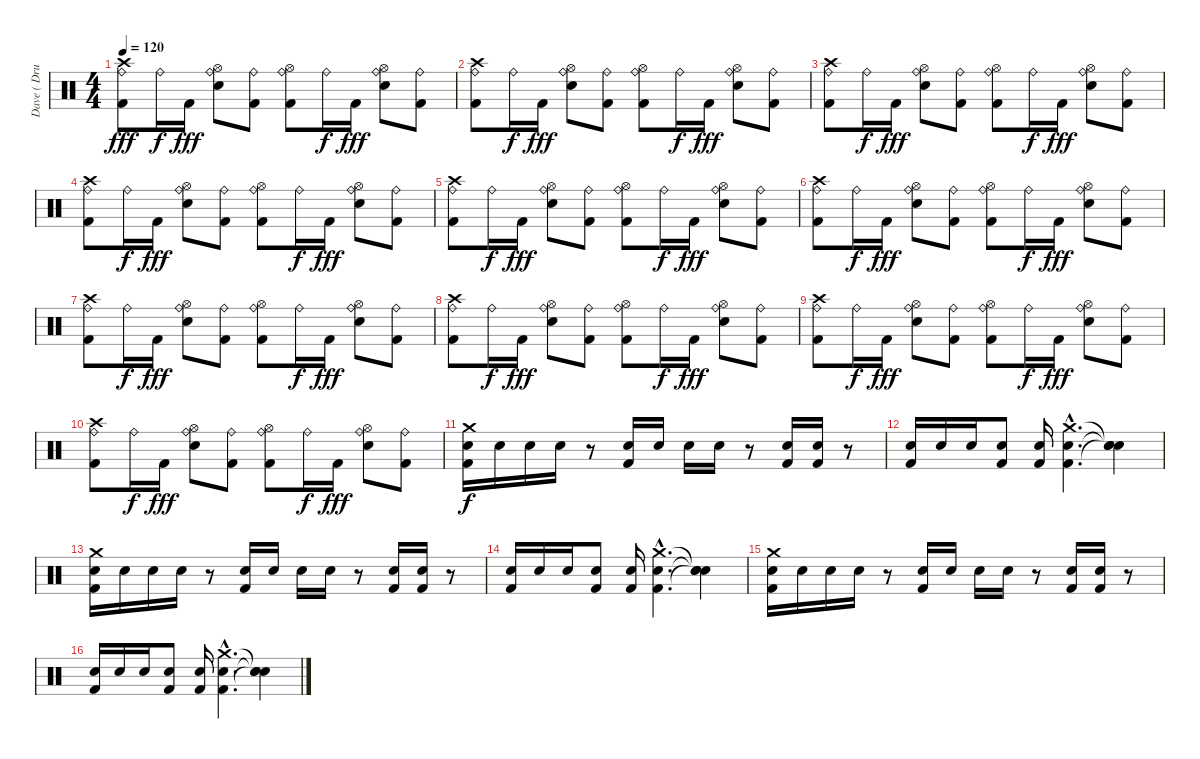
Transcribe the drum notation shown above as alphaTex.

\track ("Dave ( Drumm )" "Dave ( Dru") {instrument percussion}
\staff {score}
\articulation defaults
\ts (4 4)
\tempo 120
\clef neutral
\ks c
("Crash high (hit)" "Kick (hit) 2" "Ride (bell)").8{dy fff} "Ride (bell)".16{dy f} "Kick (hit) 2".16{dy fff} ("Hi-Hat (open)" "Snare (hit) 2" "Ride (bell)").8 ("Kick (hit) 2" "Ride (bell)").8 ("Hi-Hat (open)" "Kick (hit) 2" "Ride (bell)").8 "Ride (bell)".16{dy f} "Kick (hit) 2".16{dy fff} ("Hi-Hat (open)" "Snare (hit) 2" "Ride (bell)").8 ("Kick (hit) 2" "Ride (bell)").8 |
("Crash high (hit)" "Kick (hit) 2" "Ride (bell)").8 "Ride (bell)".16{dy f} "Kick (hit) 2".16{dy fff} ("Hi-Hat (open)" "Snare (hit) 2" "Ride (bell)").8 ("Kick (hit) 2" "Ride (bell)").8 ("Hi-Hat (open)" "Kick (hit) 2" "Ride (bell)").8 "Ride (bell)".16{dy f} "Kick (hit) 2".16{dy fff} ("Hi-Hat (open)" "Snare (hit) 2" "Ride (bell)").8 ("Kick (hit) 2" "Ride (bell)").8 |
("Crash high (hit)" "Kick (hit) 2" "Ride (bell)").8 "Ride (bell)".16{dy f} "Kick (hit) 2".16{dy fff} ("Hi-Hat (open)" "Snare (hit) 2" "Ride (bell)").8 ("Kick (hit) 2" "Ride (bell)").8 ("Hi-Hat (open)" "Kick (hit) 2" "Ride (bell)").8 "Ride (bell)".16{dy f} "Kick (hit) 2".16{dy fff} ("Hi-Hat (open)" "Snare (hit) 2" "Ride (bell)").8 ("Kick (hit) 2" "Ride (bell)").8 |
("Crash high (hit)" "Kick (hit) 2" "Ride (bell)").8 "Ride (bell)".16{dy f} "Kick (hit) 2".16{dy fff} ("Hi-Hat (open)" "Snare (hit) 2" "Ride (bell)").8 ("Kick (hit) 2" "Ride (bell)").8 ("Hi-Hat (open)" "Kick (hit) 2" "Ride (bell)").8 "Ride (bell)".16{dy f} "Kick (hit) 2".16{dy fff} ("Hi-Hat (open)" "Snare (hit) 2" "Ride (bell)").8 ("Kick (hit) 2" "Ride (bell)").8 |
("Crash high (hit)" "Kick (hit) 2" "Ride (bell)").8 "Ride (bell)".16{dy f} "Kick (hit) 2".16{dy fff} ("Hi-Hat (open)" "Snare (hit) 2" "Ride (bell)").8 ("Kick (hit) 2" "Ride (bell)").8 ("Hi-Hat (open)" "Kick (hit) 2" "Ride (bell)").8 "Ride (bell)".16{dy f} "Kick (hit) 2".16{dy fff} ("Hi-Hat (open)" "Snare (hit) 2" "Ride (bell)").8 ("Kick (hit) 2" "Ride (bell)").8 |
("Crash high (hit)" "Kick (hit) 2" "Ride (bell)").8 "Ride (bell)".16{dy f} "Kick (hit) 2".16{dy fff} ("Hi-Hat (open)" "Snare (hit) 2" "Ride (bell)").8 ("Kick (hit) 2" "Ride (bell)").8 ("Hi-Hat (open)" "Kick (hit) 2" "Ride (bell)").8 "Ride (bell)".16{dy f} "Kick (hit) 2".16{dy fff} ("Hi-Hat (open)" "Snare (hit) 2" "Ride (bell)").8 ("Kick (hit) 2" "Ride (bell)").8 |
("Crash high (hit)" "Kick (hit) 2" "Ride (bell)").8 "Ride (bell)".16{dy f} "Kick (hit) 2".16{dy fff} ("Hi-Hat (open)" "Snare (hit) 2" "Ride (bell)").8 ("Kick (hit) 2" "Ride (bell)").8 ("Hi-Hat (open)" "Kick (hit) 2" "Ride (bell)").8 "Ride (bell)".16{dy f} "Kick (hit) 2".16{dy fff} ("Hi-Hat (open)" "Snare (hit) 2" "Ride (bell)").8 ("Kick (hit) 2" "Ride (bell)").8 |
("Crash high (hit)" "Kick (hit) 2" "Ride (bell)").8 "Ride (bell)".16{dy f} "Kick (hit) 2".16{dy fff} ("Hi-Hat (open)" "Snare (hit) 2" "Ride (bell)").8 ("Kick (hit) 2" "Ride (bell)").8 ("Hi-Hat (open)" "Kick (hit) 2" "Ride (bell)").8 "Ride (bell)".16{dy f} "Kick (hit) 2".16{dy fff} ("Hi-Hat (open)" "Snare (hit) 2" "Ride (bell)").8 ("Kick (hit) 2" "Ride (bell)").8 |
("Crash high (hit)" "Kick (hit) 2" "Ride (bell)").8 "Ride (bell)".16{dy f} "Kick (hit) 2".16{dy fff} ("Hi-Hat (open)" "Snare (hit) 2" "Ride (bell)").8 ("Kick (hit) 2" "Ride (bell)").8 ("Hi-Hat (open)" "Kick (hit) 2" "Ride (bell)").8 "Ride (bell)".16{dy f} "Kick (hit) 2".16{dy fff} ("Hi-Hat (open)" "Snare (hit) 2" "Ride (bell)").8 ("Kick (hit) 2" "Ride (bell)").8 |
("Crash high (hit)" "Kick (hit) 2" "Ride (bell)").8 "Ride (bell)".16{dy f} "Kick (hit) 2".16{dy fff} ("Hi-Hat (open)" "Snare (hit) 2" "Ride (bell)").8 ("Kick (hit) 2" "Ride (bell)").8 ("Hi-Hat (open)" "Kick (hit) 2" "Ride (bell)").8 "Ride (bell)".16{dy f} "Kick (hit) 2".16{dy fff} ("Hi-Hat (open)" "Snare (hit) 2" "Ride (bell)").8 ("Kick (hit) 2" "Ride (bell)").8 |
("Crash medium (hit)" "Snare (hit) 2" "Kick (hit) 2").16{dy f} "Snare (hit) 2".16 "Snare (hit) 2".16 "Snare (hit) 2".16 r.8 ("Snare (hit) 2" "Kick (hit) 2").16 "Snare (hit) 2".16 "Snare (hit) 2".16 "Snare (hit) 2".16 r.8 ("Snare (hit) 2" "Kick (hit) 2").16 ("Snare (hit) 2" "Kick (hit) 2").16 r.8 |
("Snare (hit) 2" "Kick (hit) 2").16 "Snare (hit) 2".16 "Snare (hit) 2".16 ("Snare (hit) 2" "Kick (hit) 2").8 ("Snare (hit) 2" "Kick (hit) 2").16 ("Crash medium (hit)"{hac} "Snare (hit) 2"{hac} "Kick (hit) 2"{hac}).4{d} ("Snare (hit)"{t} "Snare (hit)"{t} "Snare (hit)"{t}).4 |
("Crash medium (hit)" "Snare (hit) 2" "Kick (hit) 2").16 "Snare (hit) 2".16 "Snare (hit) 2".16 "Snare (hit) 2".16 r.8 ("Snare (hit) 2" "Kick (hit) 2").16 "Snare (hit) 2".16 "Snare (hit) 2".16 "Snare (hit) 2".16 r.8 ("Snare (hit) 2" "Kick (hit) 2").16 ("Snare (hit) 2" "Kick (hit) 2").16 r.8 |
("Snare (hit) 2" "Kick (hit) 2").16 "Snare (hit) 2".16 "Snare (hit) 2".16 ("Snare (hit) 2" "Kick (hit) 2").8 ("Snare (hit) 2" "Kick (hit) 2").16 ("Crash medium (hit)"{hac} "Snare (hit) 2"{hac} "Kick (hit) 2"{hac}).4{d} ("Snare (hit)"{t} "Snare (hit)"{t} "Snare (hit)"{t}).4 |
("Crash medium (hit)" "Snare (hit) 2" "Kick (hit) 2").16 "Snare (hit) 2".16 "Snare (hit) 2".16 "Snare (hit) 2".16 r.8 ("Snare (hit) 2" "Kick (hit) 2").16 "Snare (hit) 2".16 "Snare (hit) 2".16 "Snare (hit) 2".16 r.8 ("Snare (hit) 2" "Kick (hit) 2").16 ("Snare (hit) 2" "Kick (hit) 2").16 r.8 |
("Snare (hit) 2" "Kick (hit) 2").16 "Snare (hit) 2".16 "Snare (hit) 2".16 ("Snare (hit) 2" "Kick (hit) 2").8 ("Snare (hit) 2" "Kick (hit) 2").16 ("Crash medium (hit)"{hac} "Snare (hit) 2"{hac} "Kick (hit) 2"{hac}).4{d} ("Snare (hit)"{t} "Snare (hit)"{t} "Snare (hit)"{t}).4
